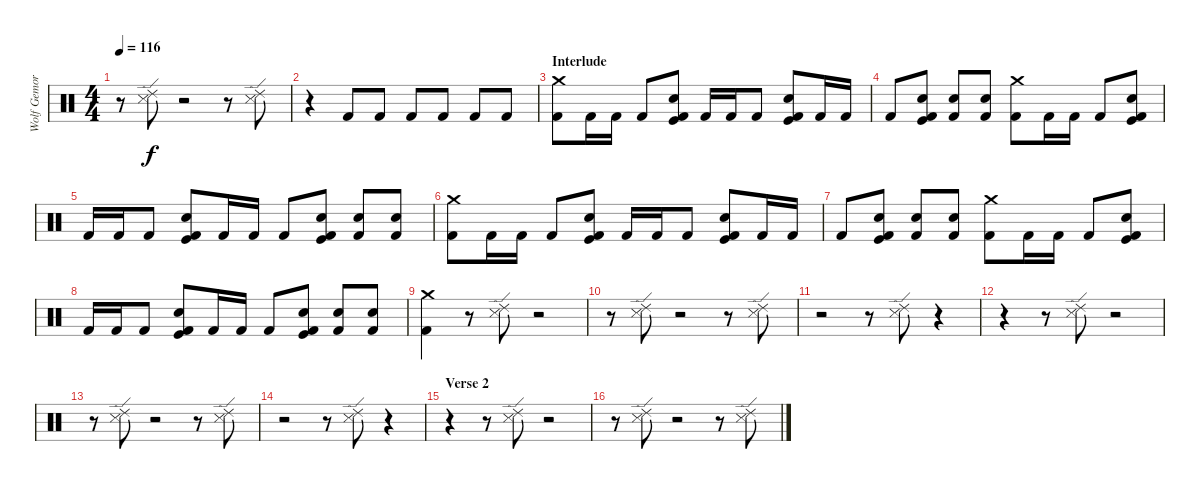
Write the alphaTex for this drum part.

\track ("Wolf Gemora" "Wolf Gemor") {instrument percussion}
\staff {score}
\articulation defaults
\ts (4 4)
\tempo 116
\clef neutral
\ks c
r.8{dy f} ("Snare (side stick) 3" "Ride (edge) 2").8 r.2 r.8 ("Snare (side stick) 3" "Ride (edge) 2").8 |
r.4{balance 8} "Kick (hit) 2".8 "Kick (hit) 2".8 "Kick (hit) 2".8 "Kick (hit) 2".8 "Kick (hit) 2".8 "Kick (hit) 2".8 |
\section ("" "Interlude")
("Crash medium (hit)" "Kick (hit) 2").8{balance 10} "Kick (hit) 2".16 "Kick (hit) 2".16 "Kick (hit) 2".8 ("Snare (hit) 2" "Kick (hit)" "Kick (hit) 2").8 "Kick (hit) 2".16 "Kick (hit) 2".16 "Kick (hit) 2".8 ("Snare (hit) 2" "Kick (hit)" "Kick (hit) 2").8 "Kick (hit) 2".16 "Kick (hit) 2".16 |
"Kick (hit) 2".8 ("Snare (hit) 2" "Kick (hit)" "Kick (hit) 2").8 ("Snare (hit) 2" "Kick (hit) 2").8 ("Snare (hit) 2" "Kick (hit) 2").8 ("Crash medium (hit)" "Kick (hit) 2").8 "Kick (hit) 2".16 "Kick (hit) 2".16 "Kick (hit) 2".8 ("Snare (hit) 2" "Kick (hit)" "Kick (hit) 2").8 |
"Kick (hit) 2".16 "Kick (hit) 2".16 "Kick (hit) 2".8 ("Snare (hit) 2" "Kick (hit)" "Kick (hit) 2").8 "Kick (hit) 2".16 "Kick (hit) 2".16 "Kick (hit) 2".8 ("Snare (hit) 2" "Kick (hit)" "Kick (hit) 2").8 ("Snare (hit) 2" "Kick (hit) 2").8 ("Snare (hit) 2" "Kick (hit) 2").8 |
("Crash medium (hit)" "Kick (hit) 2").8 "Kick (hit) 2".16 "Kick (hit) 2".16 "Kick (hit) 2".8 ("Snare (hit) 2" "Kick (hit)" "Kick (hit) 2").8 "Kick (hit) 2".16 "Kick (hit) 2".16 "Kick (hit) 2".8 ("Snare (hit) 2" "Kick (hit)" "Kick (hit) 2").8 "Kick (hit) 2".16 "Kick (hit) 2".16 |
"Kick (hit) 2".8 ("Snare (hit) 2" "Kick (hit)" "Kick (hit) 2").8 ("Snare (hit) 2" "Kick (hit) 2").8 ("Snare (hit) 2" "Kick (hit) 2").8 ("Crash medium (hit)" "Kick (hit) 2").8 "Kick (hit) 2".16 "Kick (hit) 2".16 "Kick (hit) 2".8 ("Snare (hit) 2" "Kick (hit)" "Kick (hit) 2").8 |
"Kick (hit) 2".16 "Kick (hit) 2".16 "Kick (hit) 2".8 ("Snare (hit) 2" "Kick (hit)" "Kick (hit) 2").8 "Kick (hit) 2".16 "Kick (hit) 2".16 "Kick (hit) 2".8 ("Snare (hit) 2" "Kick (hit)" "Kick (hit) 2").8 ("Snare (hit) 2" "Kick (hit) 2").8 ("Snare (hit) 2" "Kick (hit) 2").8 |
("Crash medium (hit)" "Kick (hit) 2").4 r.8 ("Snare (side stick) 3" "Ride (edge) 2").8{balance 14} r.2 |
r.8 ("Snare (side stick) 3" "Ride (edge) 2").8 r.2 r.8 ("Snare (side stick) 3" "Ride (edge) 2").8 |
r.2 r.8 ("Snare (side stick) 3" "Ride (edge) 2").8 r.4 |
r.4 r.8 ("Snare (side stick) 3" "Ride (edge) 2").8 r.2 |
r.8 ("Snare (side stick) 3" "Ride (edge) 2").8 r.2 r.8 ("Snare (side stick) 3" "Ride (edge) 2").8 |
r.2 r.8 ("Snare (side stick) 3" "Ride (edge) 2").8 r.4 |
\section ("" "Verse 2")
r.4 r.8 ("Snare (side stick) 3" "Ride (edge) 2").8 r.2 |
r.8 ("Snare (side stick) 3" "Ride (edge) 2").8 r.2 r.8 ("Snare (side stick) 3" "Ride (edge) 2").8
